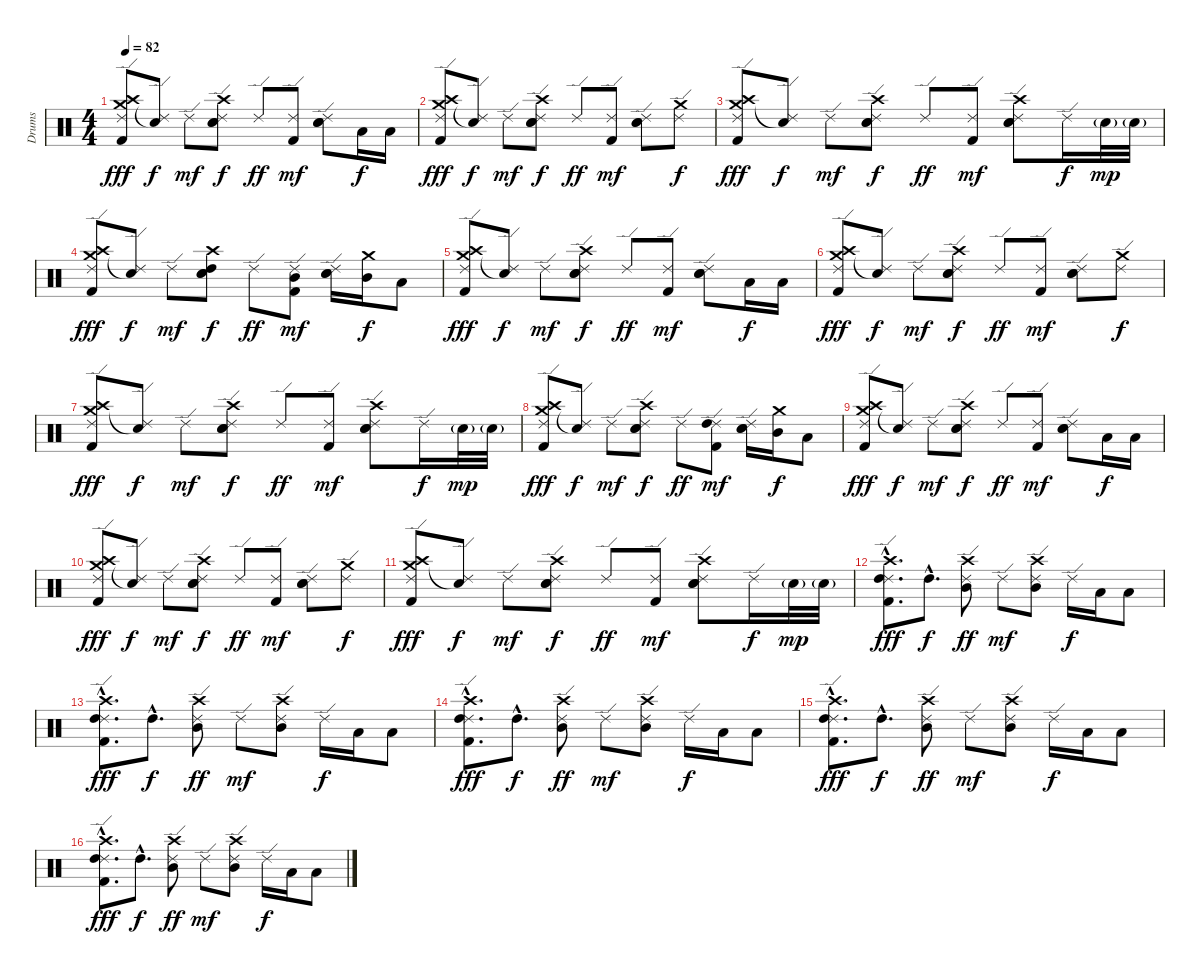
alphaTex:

\track ("Drums" "Drums") {instrument percussion}
\staff {score}
\articulation defaults
\ts (4 4)
\tempo 82
\clef neutral
\ks c
("Ride (edge) 2" "Crash high (hit)" "Crash medium (hit)" "Kick (hit) 2").8{dy fff} ("Ride (edge) 2" "Snare (hit)"{t}).8{dy f} "Ride (edge) 2".8{dy mf} ("Ride (edge) 2" "Crash high (hit)" "Snare (hit) 2" "Electric Snare (hit)").8{dy f} "Ride (edge) 2".8{dy ff} ("Ride (edge) 2" "Kick (hit) 2").8{dy mf} ("Ride (edge) 2" "Snare (hit) 2" "Electric Snare (hit)").8 "Low Tom (hit)".16{dy f} "Low Tom (hit)".16 |
("Ride (edge) 2" "Crash high (hit)" "Crash medium (hit)" "Kick (hit) 2").8{dy fff} ("Ride (edge) 2" "Snare (hit)"{t}).8{dy f} "Ride (edge) 2".8{dy mf} ("Ride (edge) 2" "Crash high (hit)" "Snare (hit) 2" "Electric Snare (hit)").8{dy f} "Ride (edge) 2".8{dy ff} ("Ride (edge) 2" "Kick (hit) 2").8{dy mf} ("Ride (edge) 2" "Snare (hit) 2" "Electric Snare (hit)").8 ("Ride (edge) 2" "Crash medium (hit)").8{dy f} |
("Ride (edge) 2" "Crash high (hit)" "Crash medium (hit)" "Kick (hit) 2").8{dy fff} ("Ride (edge) 2" "Snare (hit)"{t}).8{dy f} "Ride (edge) 2".8{dy mf} ("Ride (edge) 2" "Crash high (hit)" "Snare (hit) 2" "Electric Snare (hit)").8{dy f} "Ride (edge) 2".8{dy ff} ("Ride (edge) 2" "Kick (hit) 2").8{dy mf} ("Ride (edge) 2" "Crash high (hit)" "Snare (hit) 2" "Electric Snare (hit)").8 "Ride (edge) 2".16{dy f} "Electric Snare (hit)"{g}.32{dy mp} "Electric Snare (hit)"{g}.32 |
("Ride (edge) 2" "Crash high (hit)" "Crash medium (hit)" "Kick (hit) 2").8{dy fff} ("Ride (edge) 2" "Snare (hit)"{t}).8{dy f} "Ride (edge) 2".8{dy mf} ("Crash high (hit)" "Snare (hit) 2" "Electric Snare (hit)" "High Tom (hit)").8{dy f} "Ride (edge) 2".8{dy ff} ("Ride (edge) 2" "Mid Tom (hit)" "Kick (hit) 2").8{dy mf} ("Ride (edge) 2" "Snare (hit) 2" "Electric Snare (hit)").16 ("Crash medium (hit)" "Mid Tom (hit)").16{dy f} "Low Tom (hit)".8 |
("Ride (edge) 2" "Crash high (hit)" "Crash medium (hit)" "Kick (hit) 2").8{dy fff} ("Ride (edge) 2" "Snare (hit)"{t}).8{dy f} "Ride (edge) 2".8{dy mf} ("Ride (edge) 2" "Crash high (hit)" "Snare (hit) 2" "Electric Snare (hit)").8{dy f} "Ride (edge) 2".8{dy ff} ("Ride (edge) 2" "Kick (hit) 2").8{dy mf} ("Ride (edge) 2" "Snare (hit) 2" "Electric Snare (hit)").8 "Low Tom (hit)".16{dy f} "Low Tom (hit)".16 |
("Ride (edge) 2" "Crash high (hit)" "Crash medium (hit)" "Kick (hit) 2").8{dy fff} ("Ride (edge) 2" "Snare (hit)"{t}).8{dy f} "Ride (edge) 2".8{dy mf} ("Ride (edge) 2" "Crash high (hit)" "Snare (hit) 2" "Electric Snare (hit)").8{dy f} "Ride (edge) 2".8{dy ff} ("Ride (edge) 2" "Kick (hit) 2").8{dy mf} ("Ride (edge) 2" "Snare (hit) 2" "Electric Snare (hit)").8 ("Ride (edge) 2" "Crash medium (hit)").8{dy f} |
("Ride (edge) 2" "Crash high (hit)" "Crash medium (hit)" "Kick (hit) 2").8{dy fff} ("Ride (edge) 2" "Snare (hit)"{t}).8{dy f} "Ride (edge) 2".8{dy mf} ("Ride (edge) 2" "Crash high (hit)" "Snare (hit) 2" "Electric Snare (hit)").8{dy f} "Ride (edge) 2".8{dy ff} ("Ride (edge) 2" "Kick (hit) 2").8{dy mf} ("Ride (edge) 2" "Crash high (hit)" "Snare (hit) 2" "Electric Snare (hit)").8 "Ride (edge) 2".16{dy f} "Electric Snare (hit)"{g}.32{dy mp} "Electric Snare (hit)"{g}.32 |
("Ride (edge) 2" "Crash high (hit)" "Crash medium (hit)" "Kick (hit) 2").8{dy fff} ("Ride (edge) 2" "Snare (hit)"{t}).8{dy f} "Ride (edge) 2".8{dy mf} ("Ride (edge) 2" "Crash high (hit)" "Snare (hit) 2" "Electric Snare (hit)").8{dy f} "Ride (edge) 2".8{dy ff} ("Ride (edge) 2" "High Tom (hit)" "Kick (hit) 2").8{dy mf} ("Ride (edge) 2" "Snare (hit) 2" "Electric Snare (hit)").16 ("Crash medium (hit)" "Mid Tom (hit)").16{dy f} "Low Tom (hit)".8 |
("Ride (edge) 2" "Crash high (hit)" "Crash medium (hit)" "Kick (hit) 2").8{dy fff} ("Ride (edge) 2" "Snare (hit)"{t}).8{dy f} "Ride (edge) 2".8{dy mf} ("Ride (edge) 2" "Crash high (hit)" "Snare (hit) 2" "Electric Snare (hit)").8{dy f} "Ride (edge) 2".8{dy ff} ("Ride (edge) 2" "Kick (hit) 2").8{dy mf} ("Ride (edge) 2" "Snare (hit) 2" "Electric Snare (hit)").8 "Low Tom (hit)".16{dy f} "Low Tom (hit)".16 |
("Ride (edge) 2" "Crash high (hit)" "Crash medium (hit)" "Kick (hit) 2").8{dy fff} ("Ride (edge) 2" "Snare (hit)"{t}).8{dy f} "Ride (edge) 2".8{dy mf} ("Ride (edge) 2" "Crash high (hit)" "Snare (hit) 2" "Electric Snare (hit)").8{dy f} "Ride (edge) 2".8{dy ff} ("Ride (edge) 2" "Kick (hit) 2").8{dy mf} ("Ride (edge) 2" "Snare (hit) 2" "Electric Snare (hit)").8 ("Ride (edge) 2" "Crash medium (hit)").8{dy f} |
("Ride (edge) 2" "Crash high (hit)" "Crash medium (hit)" "Kick (hit) 2").8{dy fff} ("Ride (edge) 2" "Snare (hit)"{t}).8{dy f} "Ride (edge) 2".8{dy mf} ("Ride (edge) 2" "Crash high (hit)" "Snare (hit) 2" "Electric Snare (hit)").8{dy f} "Ride (edge) 2".8{dy ff} ("Ride (edge) 2" "Kick (hit) 2").8{dy mf} ("Ride (edge) 2" "Crash high (hit)" "Snare (hit) 2" "Electric Snare (hit)").8 "Ride (edge) 2".16{dy f} "Electric Snare (hit)"{g}.32{dy mp} "Electric Snare (hit)"{g}.32 |
("Ride (edge) 2"{hac} "Crash high (hit)"{hac} "High Tom (hit)"{hac} "Kick (hit) 2"{hac}).8{d dy fff} "High Tom (hit)"{hac}.8{d dy f} ("Ride (edge) 2" "Crash high (hit)" "Mid Tom (hit)").8{dy ff} "Ride (edge) 2".8{dy mf} ("Ride (edge) 2" "Crash high (hit)" "Mid Tom (hit)").8 "Ride (edge) 2".16{dy f} "Low Tom (hit)".16 "Low Tom (hit)".8 |
("Ride (edge) 2"{hac} "Crash high (hit)"{hac} "High Tom (hit)"{hac} "Kick (hit) 2"{hac}).8{d dy fff volume 11} "High Tom (hit)"{hac}.8{d dy f} ("Ride (edge) 2" "Crash high (hit)" "Mid Tom (hit)").8{dy ff} "Ride (edge) 2".8{dy mf} ("Ride (edge) 2" "Crash high (hit)" "Mid Tom (hit)").8 "Ride (edge) 2".16{dy f} "Low Tom (hit)".16 "Low Tom (hit)".8 |
("Ride (edge) 2"{hac} "Crash high (hit)"{hac} "High Tom (hit)"{hac} "Kick (hit) 2"{hac}).8{d dy fff} "High Tom (hit)"{hac}.8{d dy f} ("Ride (edge) 2" "Crash high (hit)" "Mid Tom (hit)").8{dy ff} "Ride (edge) 2".8{dy mf} ("Ride (edge) 2" "Crash high (hit)" "Mid Tom (hit)").8 "Ride (edge) 2".16{dy f} "Low Tom (hit)".16 "Low Tom (hit)".8 |
("Ride (edge) 2"{hac} "Crash high (hit)"{hac} "High Tom (hit)"{hac} "Kick (hit) 2"{hac}).8{d dy fff} "High Tom (hit)"{hac}.8{d dy f} ("Ride (edge) 2" "Crash high (hit)" "Mid Tom (hit)").8{dy ff} "Ride (edge) 2".8{dy mf} ("Ride (edge) 2" "Crash high (hit)" "Mid Tom (hit)").8 "Ride (edge) 2".16{dy f} "Low Tom (hit)".16 "Low Tom (hit)".8 |
("Ride (edge) 2"{hac} "Crash high (hit)"{hac} "High Tom (hit)"{hac} "Kick (hit) 2"{hac}).8{d dy fff} "High Tom (hit)"{hac}.8{d dy f} ("Ride (edge) 2" "Crash high (hit)" "Mid Tom (hit)").8{dy ff} "Ride (edge) 2".8{dy mf} ("Ride (edge) 2" "Crash high (hit)" "Mid Tom (hit)").8 "Ride (edge) 2".16{dy f} "Low Tom (hit)".16 "Low Tom (hit)".8
